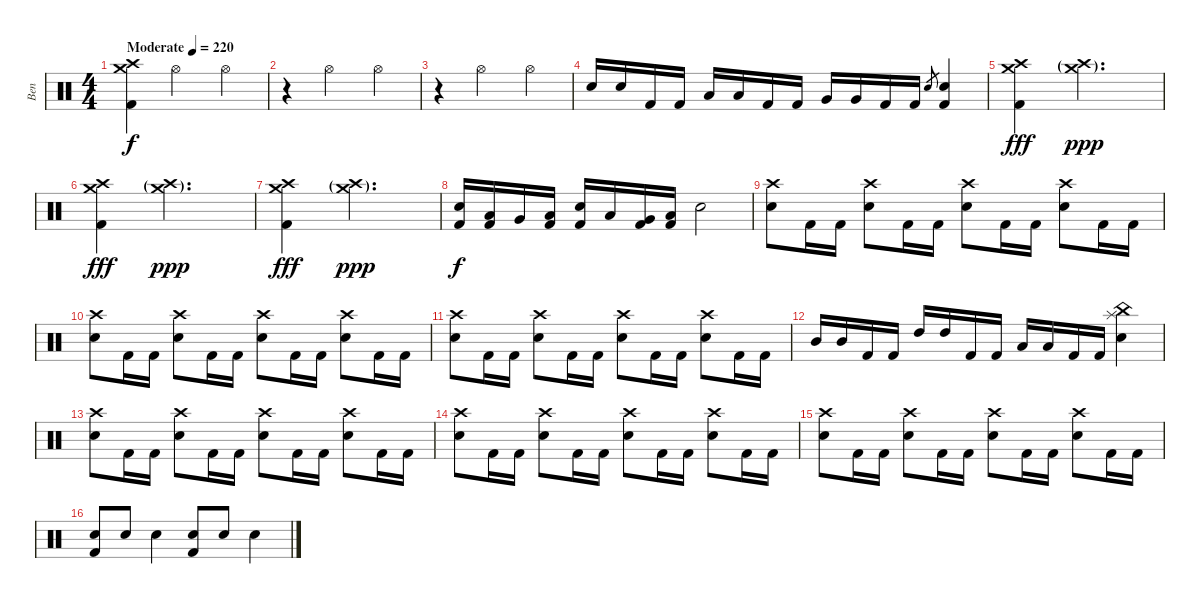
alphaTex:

\track ("Ben" "Ben") {instrument percussion}
\staff {score}
\articulation defaults
\ts (4 4)
\tempo (220 "Moderate")
\clef neutral
\ks c
("Crash high (hit)" "Crash medium (hit)" "Kick (hit) 2").4{dy f} "Hi-Hat (open)".2 "Hi-Hat (open)".4 |
r.4 "Hi-Hat (open)".2 "Hi-Hat (open)".4 |
r.4 "Hi-Hat (open)".2 "Hi-Hat (open)".4 |
"Snare (hit) 2".16 "Snare (hit) 2".16 "Kick (hit) 2".16 "Kick (hit) 2".16 "Low Tom (hit)".16 "Low Tom (hit)".16 "Kick (hit) 2".16 "Kick (hit) 2".16 "Very Low Tom (hit)".16 "Very Low Tom (hit)".16 "Kick (hit) 2".16 "Kick (hit) 2".16 "Snare (hit) 2".8{gr} ("Snare (hit) 2" "Kick (hit) 2").4 |
("Crash high (hit)" "Crash medium (hit)" "Kick (hit) 2").4{dy fff} ("Crash high (hit)"{g} "Crash medium (hit)"{g}).2{d dy ppp} |
("Crash high (hit)" "Crash medium (hit)" "Kick (hit) 2").4{dy fff} ("Crash high (hit)"{g} "Crash medium (hit)"{g}).2{d dy ppp} |
("Crash high (hit)" "Crash medium (hit)" "Kick (hit) 2").4{dy fff} ("Crash high (hit)"{g} "Crash medium (hit)"{g}).2{d dy ppp} |
("Snare (hit) 2" "Kick (hit) 2").16{dy f} ("Low Tom (hit)" "Kick (hit) 2").16 "Very Low Tom (hit)".16 ("Low Floor Tom (hit)" "Kick (hit) 2").16 ("Snare (hit) 2" "Kick (hit) 2").16 "Low Tom (hit)".16 ("Very Low Tom (hit)" "Kick (hit) 2").16 ("Low Floor Tom (hit)" "Kick (hit) 2").16 "Snare (hit) 2".2 |
("Crash high (hit)" "Snare (hit) 2").8 "Kick (hit) 2".16 "Kick (hit) 2".16 ("Crash high (hit)" "Snare (hit) 2").8 "Kick (hit) 2".16 "Kick (hit) 2".16 ("Crash high (hit)" "Snare (hit) 2").8 "Kick (hit) 2".16 "Kick (hit) 2".16 ("Crash high (hit)" "Snare (hit) 2").8 "Kick (hit) 2".16 "Kick (hit) 2".16 |
("Crash high (hit)" "Snare (hit) 2").8 "Kick (hit) 2".16 "Kick (hit) 2".16 ("Crash high (hit)" "Snare (hit) 2").8 "Kick (hit) 2".16 "Kick (hit) 2".16 ("Crash high (hit)" "Snare (hit) 2").8 "Kick (hit) 2".16 "Kick (hit) 2".16 ("Crash high (hit)" "Snare (hit) 2").8 "Kick (hit) 2".16 "Kick (hit) 2".16 |
("Crash high (hit)" "Snare (hit) 2").8 "Kick (hit) 2".16 "Kick (hit) 2".16 ("Crash high (hit)" "Snare (hit) 2").8 "Kick (hit) 2".16 "Kick (hit) 2".16 ("Crash high (hit)" "Snare (hit) 2").8 "Kick (hit) 2".16 "Kick (hit) 2".16 ("Crash high (hit)" "Snare (hit) 2").8 "Kick (hit) 2".16 "Kick (hit) 2".16 |
"Mid Tom (hit)".16 "Mid Tom (hit)".16 "Kick (hit) 2".16 "Kick (hit) 2".16 "High Tom (hit)".16 "High Tom (hit)".16 "Kick (hit) 2".16 "Kick (hit) 2".16 "Low Tom (hit)".16 "Low Tom (hit)".16 "Kick (hit) 2".16 "Kick (hit) 2".16 ("China (hit)" "Splash (hit)" "Snare (hit) 2").4 |
("Crash high (hit)" "Snare (hit) 2").8 "Kick (hit) 2".16 "Kick (hit) 2".16 ("Crash high (hit)" "Snare (hit) 2").8 "Kick (hit) 2".16 "Kick (hit) 2".16 ("Crash high (hit)" "Snare (hit) 2").8 "Kick (hit) 2".16 "Kick (hit) 2".16 ("Crash high (hit)" "Snare (hit) 2").8 "Kick (hit) 2".16 "Kick (hit) 2".16 |
("Crash high (hit)" "Snare (hit) 2").8 "Kick (hit) 2".16 "Kick (hit) 2".16 ("Crash high (hit)" "Snare (hit) 2").8 "Kick (hit) 2".16 "Kick (hit) 2".16 ("Crash high (hit)" "Snare (hit) 2").8 "Kick (hit) 2".16 "Kick (hit) 2".16 ("Crash high (hit)" "Snare (hit) 2").8 "Kick (hit) 2".16 "Kick (hit) 2".16 |
("Crash high (hit)" "Snare (hit) 2").8 "Kick (hit) 2".16 "Kick (hit) 2".16 ("Crash high (hit)" "Snare (hit) 2").8 "Kick (hit) 2".16 "Kick (hit) 2".16 ("Crash high (hit)" "Snare (hit) 2").8 "Kick (hit) 2".16 "Kick (hit) 2".16 ("Crash high (hit)" "Snare (hit) 2").8 "Kick (hit) 2".16 "Kick (hit) 2".16 |
("Snare (hit) 2" "Kick (hit) 2").8 "Snare (hit) 2".8 "Snare (hit) 2".4 ("Snare (hit) 2" "Kick (hit) 2").8 "Snare (hit) 2".8 "Snare (hit) 2".4
